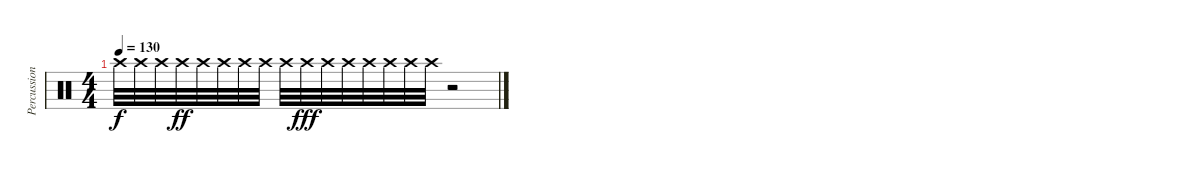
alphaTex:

\track ("Percussion" "Percussion") {instrument percussion}
\staff {score}
\articulation defaults
\ts (4 4)
\tempo 130
\clef neutral
\ks c "Crash high (hit)".32{dy f} "Crash high (hit)".32 "Crash high (hit)".32 "Crash high (hit)".32{dy ff} "Crash high (hit)".32 "Crash high (hit)".32 "Crash high (hit)".32 "Crash high (hit)".32 "Crash high (hit)".32 "Crash high (hit)".32{dy fff} "Crash high (hit)".32 "Crash high (hit)".32 "Crash high (hit)".32 "Crash high (hit)".32 "Crash high (hit)".32 "Crash high (hit)".32
r.2
